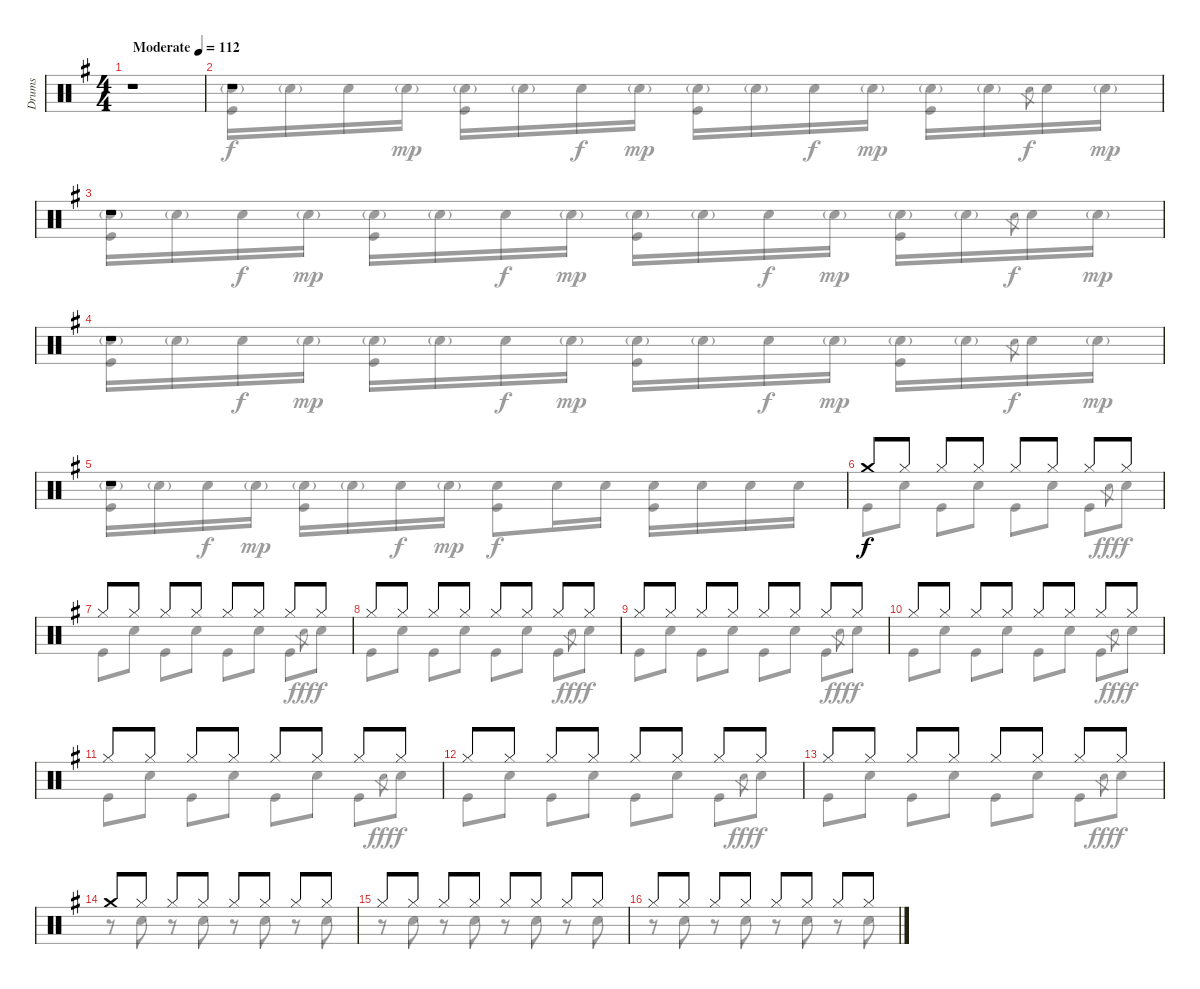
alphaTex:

\track ("Drums" "Drums") {instrument percussion}
\staff {score}
\articulation defaults
\voice
\ts (4 4)
\tempo (112 "Moderate")
\clef neutral
\ks g
r.1{dy f} |
r.1 |
r.1 |
r.1 |
r.1 |
"Crash medium (hit)".8 "Hi-Hat (closed)".8 "Hi-Hat (closed)".8 "Hi-Hat (closed)".8 "Hi-Hat (closed)".8 "Hi-Hat (closed)".8 "Hi-Hat (closed)".8 "Hi-Hat (closed)".8 |
"Hi-Hat (closed)".8 "Hi-Hat (closed)".8 "Hi-Hat (closed)".8 "Hi-Hat (closed)".8 "Hi-Hat (closed)".8 "Hi-Hat (closed)".8 "Hi-Hat (closed)".8 "Hi-Hat (closed)".8 |
"Hi-Hat (closed)".8 "Hi-Hat (closed)".8 "Hi-Hat (closed)".8 "Hi-Hat (closed)".8 "Hi-Hat (closed)".8 "Hi-Hat (closed)".8 "Hi-Hat (closed)".8 "Hi-Hat (closed)".8 |
"Hi-Hat (closed)".8 "Hi-Hat (closed)".8 "Hi-Hat (closed)".8 "Hi-Hat (closed)".8 "Hi-Hat (closed)".8 "Hi-Hat (closed)".8 "Hi-Hat (closed)".8 "Hi-Hat (closed)".8 |
"Hi-Hat (closed)".8 "Hi-Hat (closed)".8 "Hi-Hat (closed)".8 "Hi-Hat (closed)".8 "Hi-Hat (closed)".8 "Hi-Hat (closed)".8 "Hi-Hat (closed)".8 "Hi-Hat (closed)".8 |
"Hi-Hat (closed)".8 "Hi-Hat (closed)".8 "Hi-Hat (closed)".8 "Hi-Hat (closed)".8 "Hi-Hat (closed)".8 "Hi-Hat (closed)".8 "Hi-Hat (closed)".8 "Hi-Hat (closed)".8 |
"Hi-Hat (closed)".8 "Hi-Hat (closed)".8 "Hi-Hat (closed)".8 "Hi-Hat (closed)".8 "Hi-Hat (closed)".8 "Hi-Hat (closed)".8 "Hi-Hat (closed)".8 "Hi-Hat (closed)".8 |
"Hi-Hat (closed)".8 "Hi-Hat (closed)".8 "Hi-Hat (closed)".8 "Hi-Hat (closed)".8 "Hi-Hat (closed)".8 "Hi-Hat (closed)".8 "Hi-Hat (closed)".8 "Hi-Hat (closed)".8 |
"Crash medium (hit)".8 "Hi-Hat (closed)".8 "Hi-Hat (closed)".8 "Hi-Hat (closed)".8 "Hi-Hat (closed)".8 "Hi-Hat (closed)".8 "Hi-Hat (closed)".8 "Hi-Hat (closed)".8 |
"Hi-Hat (closed)".8 "Hi-Hat (closed)".8 "Hi-Hat (closed)".8 "Hi-Hat (closed)".8 "Hi-Hat (closed)".8 "Hi-Hat (closed)".8 "Hi-Hat (closed)".8 "Hi-Hat (closed)".8 |
"Hi-Hat (closed)".8 "Hi-Hat (closed)".8 "Hi-Hat (closed)".8 "Hi-Hat (closed)".8 "Hi-Hat (closed)".8 "Hi-Hat (closed)".8 "Hi-Hat (closed)".8 "Hi-Hat (closed)".8
\voice
\clef neutral
\ottava regular
\simile none
\ks g
|
("Snare (hit) 2"{g} "Kick (hit)").16 "Snare (hit) 2"{g}.16 "Snare (hit) 2".16{dy f} "Snare (hit) 2"{g}.16{dy mp} ("Snare (hit) 2"{g} "Kick (hit)").16 "Snare (hit) 2"{g}.16 "Snare (hit) 2".16{dy f} "Snare (hit) 2"{g}.16{dy mp} ("Snare (hit) 2"{g} "Kick (hit)").16 "Snare (hit) 2"{g}.16 "Snare (hit) 2".16{dy f} "Snare (hit) 2"{g}.16{dy mp} ("Snare (hit) 2"{g} "Kick (hit)").16 "Snare (hit) 2"{g}.16 "Snare (hit) 2".8{gr dy f} "Snare (hit) 2".16 "Snare (hit) 2"{g}.16{dy mp} |
("Snare (hit) 2"{g} "Kick (hit)").16 "Snare (hit) 2"{g}.16 "Snare (hit) 2".16{dy f} "Snare (hit) 2"{g}.16{dy mp} ("Snare (hit) 2"{g} "Kick (hit)").16 "Snare (hit) 2"{g}.16 "Snare (hit) 2".16{dy f} "Snare (hit) 2"{g}.16{dy mp} ("Snare (hit) 2"{g} "Kick (hit)").16 "Snare (hit) 2"{g}.16 "Snare (hit) 2".16{dy f} "Snare (hit) 2"{g}.16{dy mp} ("Snare (hit) 2"{g} "Kick (hit)").16 "Snare (hit) 2"{g}.16 "Snare (hit) 2".8{gr dy f} "Snare (hit) 2".16 "Snare (hit) 2"{g}.16{dy mp} |
("Snare (hit) 2"{g} "Kick (hit)").16 "Snare (hit) 2"{g}.16 "Snare (hit) 2".16{dy f} "Snare (hit) 2"{g}.16{dy mp} ("Snare (hit) 2"{g} "Kick (hit)").16 "Snare (hit) 2"{g}.16 "Snare (hit) 2".16{dy f} "Snare (hit) 2"{g}.16{dy mp} ("Snare (hit) 2"{g} "Kick (hit)").16 "Snare (hit) 2"{g}.16 "Snare (hit) 2".16{dy f} "Snare (hit) 2"{g}.16{dy mp} ("Snare (hit) 2"{g} "Kick (hit)").16 "Snare (hit) 2"{g}.16 "Snare (hit) 2".8{gr dy f} "Snare (hit) 2".16 "Snare (hit) 2"{g}.16{dy mp} |
("Snare (hit) 2"{g} "Kick (hit)").16 "Snare (hit) 2"{g}.16 "Snare (hit) 2".16{dy f} "Snare (hit) 2"{g}.16{dy mp} ("Snare (hit) 2"{g} "Kick (hit)").16 "Snare (hit) 2"{g}.16 "Snare (hit) 2".16{dy f} "Snare (hit) 2"{g}.16{dy mp} ("Snare (hit) 2" "Kick (hit)").8{dy f} "Snare (hit) 2".16 "Snare (hit) 2".16 ("Snare (hit) 2" "Kick (hit)").16 "Snare (hit) 2".16 "Snare (hit) 2".16 "Snare (hit) 2".16 |
"Kick (hit)".8 "Snare (hit) 2".8 "Kick (hit)".8 "Snare (hit) 2".8 "Kick (hit)".8 "Snare (hit) 2".8 "Kick (hit)".8 "Snare (hit) 2".8{gr dy fff} "Snare (hit) 2".8{dy f} |
"Kick (hit)".8 "Snare (hit) 2".8 "Kick (hit)".8 "Snare (hit) 2".8 "Kick (hit)".8 "Snare (hit) 2".8 "Kick (hit)".8 "Snare (hit) 2".8{gr dy fff} "Snare (hit) 2".8{dy f} |
"Kick (hit)".8 "Snare (hit) 2".8 "Kick (hit)".8 "Snare (hit) 2".8 "Kick (hit)".8 "Snare (hit) 2".8 "Kick (hit)".8 "Snare (hit) 2".8{gr dy fff} "Snare (hit) 2".8{dy f} |
"Kick (hit)".8 "Snare (hit) 2".8 "Kick (hit)".8 "Snare (hit) 2".8 "Kick (hit)".8 "Snare (hit) 2".8 "Kick (hit)".8 "Snare (hit) 2".8{gr dy fff} "Snare (hit) 2".8{dy f} |
"Kick (hit)".8 "Snare (hit) 2".8 "Kick (hit)".8 "Snare (hit) 2".8 "Kick (hit)".8 "Snare (hit) 2".8 "Kick (hit)".8 "Snare (hit) 2".8{gr dy fff} "Snare (hit) 2".8{dy f} |
"Kick (hit)".8 "Snare (hit) 2".8 "Kick (hit)".8 "Snare (hit) 2".8 "Kick (hit)".8 "Snare (hit) 2".8 "Kick (hit)".8 "Snare (hit) 2".8{gr dy fff} "Snare (hit) 2".8{dy f} |
"Kick (hit)".8 "Snare (hit) 2".8 "Kick (hit)".8 "Snare (hit) 2".8 "Kick (hit)".8 "Snare (hit) 2".8 "Kick (hit)".8 "Snare (hit) 2".8{gr dy fff} "Snare (hit) 2".8{dy f} |
"Kick (hit)".8 "Snare (hit) 2".8 "Kick (hit)".8 "Snare (hit) 2".8 "Kick (hit)".8 "Snare (hit) 2".8 "Kick (hit)".8 "Snare (hit) 2".8{gr dy fff} "Snare (hit) 2".8{dy f} |
r.8 "Snare (hit) 2".8 r.8 "Snare (hit) 2".8 r.8 "Snare (hit) 2".8 r.8 "Snare (hit) 2".8 |
r.8 "Snare (hit) 2".8 r.8 "Snare (hit) 2".8 r.8 "Snare (hit) 2".8 r.8 "Snare (hit) 2".8 |
r.8 "Snare (hit) 2".8 r.8 "Snare (hit) 2".8 r.8 "Snare (hit) 2".8 r.8 "Snare (hit) 2".8
